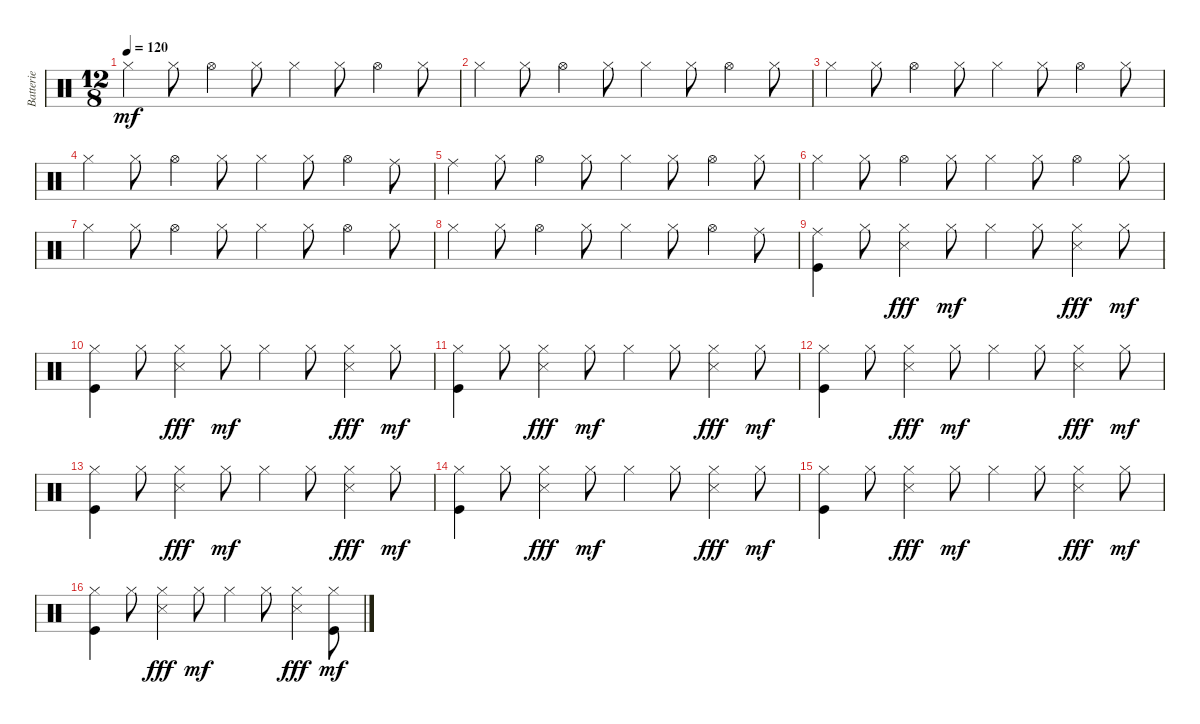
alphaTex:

\track ("Batterie" "Batterie") {instrument percussion}
\staff {score}
\articulation defaults
\ts (12 8)
\tempo 120
\clef neutral
\ks c "Hi-Hat (closed)".4{dy mf} "Hi-Hat (closed)".8 "Hi-Hat (open)".4 "Hi-Hat (closed)".8 "Hi-Hat (closed)".4 "Hi-Hat (closed)".8 "Hi-Hat (open)".4 "Hi-Hat (closed)".8
|
"Hi-Hat (closed)".4 "Hi-Hat (closed)".8 "Hi-Hat (open)".4 "Hi-Hat (closed)".8 "Hi-Hat (closed)".4 "Hi-Hat (closed)".8 "Hi-Hat (open)".4 "Hi-Hat (closed)".8 |
"Hi-Hat (closed)".4 "Hi-Hat (closed)".8 "Hi-Hat (open)".4 "Hi-Hat (closed)".8 "Hi-Hat (closed)".4 "Hi-Hat (closed)".8 "Hi-Hat (open)".4 "Hi-Hat (closed)".8 |
"Hi-Hat (closed)".4 "Hi-Hat (closed)".8 "Hi-Hat (open)".4 "Hi-Hat (closed)".8 "Hi-Hat (closed)".4 "Hi-Hat (closed)".8 "Hi-Hat (open)".4 "Ride (middle)".8 |
"Ride (middle)".4 "Hi-Hat (closed)".8 "Hi-Hat (open)".4 "Hi-Hat (closed)".8 "Hi-Hat (closed)".4 "Hi-Hat (closed)".8 "Hi-Hat (open)".4 "Hi-Hat (closed)".8 |
"Hi-Hat (closed)".4 "Hi-Hat (closed)".8 "Hi-Hat (open)".4 "Hi-Hat (closed)".8 "Hi-Hat (closed)".4 "Hi-Hat (closed)".8 "Hi-Hat (open)".4 "Hi-Hat (closed)".8 |
"Hi-Hat (closed)".4 "Hi-Hat (closed)".8 "Hi-Hat (open)".4 "Hi-Hat (closed)".8 "Hi-Hat (closed)".4 "Hi-Hat (closed)".8 "Hi-Hat (open)".4 "Hi-Hat (closed)".8 |
"Hi-Hat (closed)".4 "Hi-Hat (closed)".8 "Hi-Hat (open)".4 "Hi-Hat (closed)".8 "Hi-Hat (closed)".4 "Hi-Hat (closed)".8 "Hi-Hat (open)".4 "Ride (middle)".8 |
("Ride (middle)" "Kick (hit)").4 "Hi-Hat (closed)".8 ("Hi-Hat (closed)" "Snare (side stick) 3").4{dy fff} "Hi-Hat (closed)".8{dy mf} "Hi-Hat (closed)".4 "Hi-Hat (closed)".8 ("Hi-Hat (closed)" "Snare (side stick) 3").4{dy fff} "Hi-Hat (closed)".8{dy mf} |
("Hi-Hat (closed)" "Kick (hit)").4 "Hi-Hat (closed)".8 ("Hi-Hat (closed)" "Snare (side stick) 3").4{dy fff} "Hi-Hat (closed)".8{dy mf} "Hi-Hat (closed)".4 "Hi-Hat (closed)".8 ("Hi-Hat (closed)" "Snare (side stick) 3").4{dy fff} "Hi-Hat (closed)".8{dy mf} |
("Hi-Hat (closed)" "Kick (hit)").4 "Hi-Hat (closed)".8 ("Hi-Hat (closed)" "Snare (side stick) 3").4{dy fff} "Hi-Hat (closed)".8{dy mf} "Hi-Hat (closed)".4 "Hi-Hat (closed)".8 ("Hi-Hat (closed)" "Snare (side stick) 3").4{dy fff} "Hi-Hat (closed)".8{dy mf} |
("Hi-Hat (closed)" "Kick (hit)").4 "Hi-Hat (closed)".8 ("Hi-Hat (closed)" "Snare (side stick) 3").4{dy fff} "Hi-Hat (closed)".8{dy mf} "Hi-Hat (closed)".4 "Hi-Hat (closed)".8 ("Hi-Hat (closed)" "Snare (side stick) 3").4{dy fff} "Hi-Hat (closed)".8{dy mf} |
("Hi-Hat (closed)" "Kick (hit)").4 "Hi-Hat (closed)".8 ("Hi-Hat (closed)" "Snare (side stick) 3").4{dy fff} "Hi-Hat (closed)".8{dy mf} "Hi-Hat (closed)".4 "Hi-Hat (closed)".8 ("Hi-Hat (closed)" "Snare (side stick) 3").4{dy fff} "Hi-Hat (closed)".8{dy mf} |
("Hi-Hat (closed)" "Kick (hit)").4 "Hi-Hat (closed)".8 ("Hi-Hat (closed)" "Snare (side stick) 3").4{dy fff} "Hi-Hat (closed)".8{dy mf} "Hi-Hat (closed)".4 "Hi-Hat (closed)".8 ("Hi-Hat (closed)" "Snare (side stick) 3").4{dy fff} "Hi-Hat (closed)".8{dy mf} |
("Hi-Hat (closed)" "Kick (hit)").4 "Hi-Hat (closed)".8 ("Hi-Hat (closed)" "Snare (side stick) 3").4{dy fff} "Hi-Hat (closed)".8{dy mf} "Hi-Hat (closed)".4 "Hi-Hat (closed)".8 ("Hi-Hat (closed)" "Snare (side stick) 3").4{dy fff} "Hi-Hat (closed)".8{dy mf} |
("Hi-Hat (closed)" "Kick (hit)").4 "Hi-Hat (closed)".8 ("Hi-Hat (closed)" "Snare (side stick) 3").4{dy fff} "Hi-Hat (closed)".8{dy mf} "Hi-Hat (closed)".4 "Hi-Hat (closed)".8 ("Hi-Hat (closed)" "Snare (side stick) 3").4{dy fff} ("Hi-Hat (closed)" "Kick (hit)").8{dy mf}
